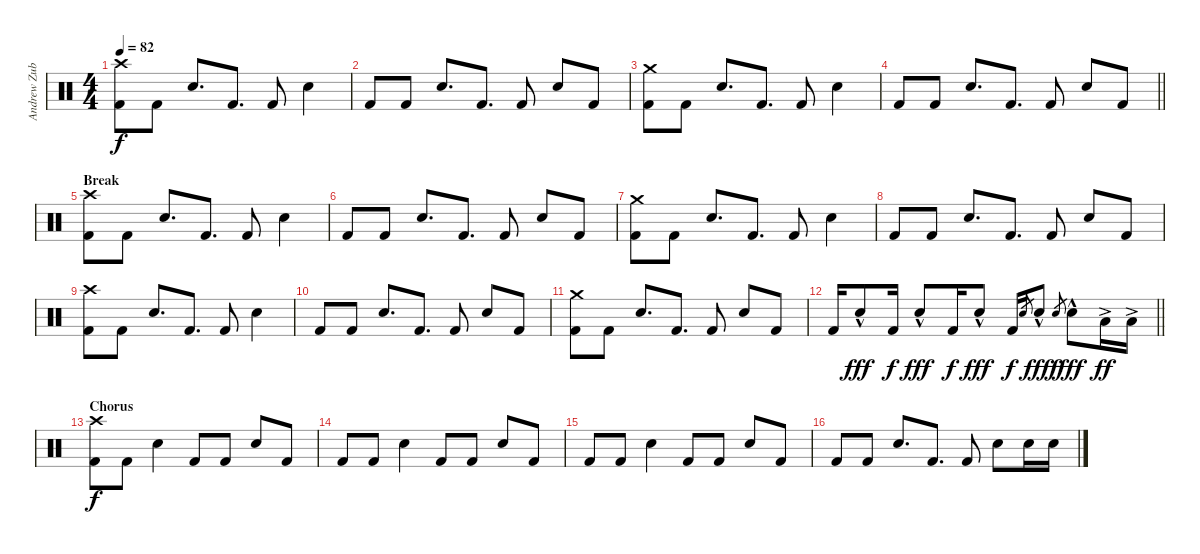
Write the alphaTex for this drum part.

\track ("Andrew Zubiszewski (Drums)" "Andrew Zub") {instrument percussion}
\staff {score}
\articulation defaults
\ts (4 4)
\tempo 82
\clef neutral
\ks c
("Crash high (hit)" "Kick (hit) 2").8{dy f} "Kick (hit) 2".8 "Electric Snare (hit)".8{d} "Kick (hit) 2".8{d} "Kick (hit) 2".8 "Electric Snare (hit)".4 |
"Kick (hit) 2".8 "Kick (hit) 2".8 "Electric Snare (hit)".8{d} "Kick (hit) 2".8{d} "Kick (hit) 2".8 "Electric Snare (hit)".8 "Kick (hit) 2".8 |
("Crash medium (hit)" "Kick (hit) 2").8 "Kick (hit) 2".8 "Electric Snare (hit)".8{d} "Kick (hit) 2".8{d} "Kick (hit) 2".8 "Electric Snare (hit)".4 |
\barLineRight lightlight "Kick (hit) 2".8 "Kick (hit) 2".8 "Electric Snare (hit)".8{d} "Kick (hit) 2".8{d} "Kick (hit) 2".8 "Electric Snare (hit)".8 "Kick (hit) 2".8
|
\section ("" "Break")
("Crash high (hit)" "Kick (hit) 2").8 "Kick (hit) 2".8 "Electric Snare (hit)".8{d} "Kick (hit) 2".8{d} "Kick (hit) 2".8 "Electric Snare (hit)".4 |
"Kick (hit) 2".8 "Kick (hit) 2".8 "Electric Snare (hit)".8{d} "Kick (hit) 2".8{d} "Kick (hit) 2".8 "Electric Snare (hit)".8 "Kick (hit) 2".8 |
("Crash medium (hit)" "Kick (hit) 2").8 "Kick (hit) 2".8 "Electric Snare (hit)".8{d} "Kick (hit) 2".8{d} "Kick (hit) 2".8 "Electric Snare (hit)".4 |
"Kick (hit) 2".8 "Kick (hit) 2".8 "Electric Snare (hit)".8{d} "Kick (hit) 2".8{d} "Kick (hit) 2".8 "Electric Snare (hit)".8 "Kick (hit) 2".8 |
("Crash high (hit)" "Kick (hit) 2").8 "Kick (hit) 2".8 "Electric Snare (hit)".8{d} "Kick (hit) 2".8{d} "Kick (hit) 2".8 "Electric Snare (hit)".4 |
"Kick (hit) 2".8 "Kick (hit) 2".8 "Electric Snare (hit)".8{d} "Kick (hit) 2".8{d} "Kick (hit) 2".8 "Electric Snare (hit)".8 "Kick (hit) 2".8 |
("Crash medium (hit)" "Kick (hit) 2").8 "Kick (hit) 2".8 "Electric Snare (hit)".8{d} "Kick (hit) 2".8{d} "Kick (hit) 2".8 "Electric Snare (hit)".8 "Kick (hit) 2".8 |
\barLineRight lightlight "Kick (hit) 2".16 "Electric Snare (hit)"{hac}.8{dy fff} "Kick (hit) 2".16{dy f} "Electric Snare (hit)"{hac}.8{dy fff} "Kick (hit) 2".16{dy f} "Electric Snare (hit)"{hac}.8{dy fff} "Kick (hit) 2".16{dy f} "Electric Snare (hit)".8{gr} "Electric Snare (hit)"{hac}.8{dy fff} "Electric Snare (hit)".8{gr dy f} "Electric Snare (hit)"{hac}.8{dy fff} "Low Tom (hit)"{ac}.16{dy ff} "Low Tom (hit)"{ac}.16
|
\section ("" "Chorus")
("Crash high (hit)" "Kick (hit) 2").8{dy f} "Kick (hit) 2".8 "Electric Snare (hit)".4 "Kick (hit) 2".8 "Kick (hit) 2".8 "Electric Snare (hit)".8 "Kick (hit) 2".8 |
"Kick (hit) 2".8 "Kick (hit) 2".8 "Electric Snare (hit)".4 "Kick (hit) 2".8 "Kick (hit) 2".8 "Electric Snare (hit)".8 "Kick (hit) 2".8 |
"Kick (hit) 2".8 "Kick (hit) 2".8 "Electric Snare (hit)".4 "Kick (hit) 2".8 "Kick (hit) 2".8 "Electric Snare (hit)".8 "Kick (hit) 2".8 |
"Kick (hit) 2".8 "Kick (hit) 2".8 "Electric Snare (hit)".8{d} "Kick (hit) 2".8{d} "Kick (hit) 2".8 "Electric Snare (hit)".8 "Electric Snare (hit)".16 "Electric Snare (hit)".16
